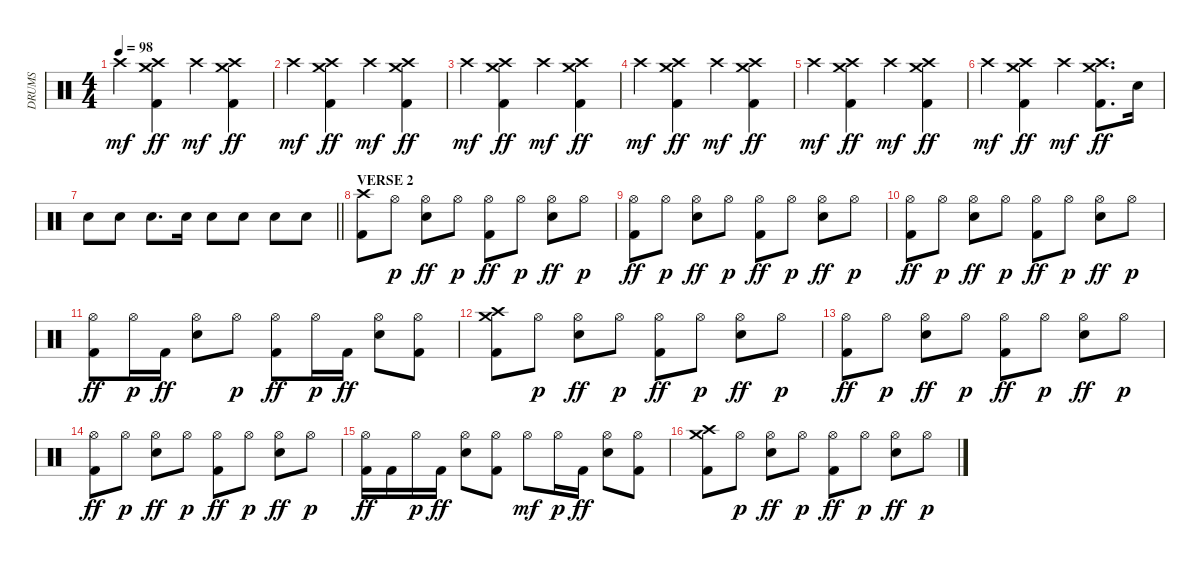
\track ("DRUMS" "DRUMS") {instrument percussion}
\staff {score}
\articulation defaults
\ts (4 4)
\tempo 98
\clef neutral
\ks c "Crash high (hit)".4{dy mf}
("Crash high (hit)" "Crash medium (hit)" "Kick (hit) 2").4{dy ff} "Crash high (hit)".4{dy mf} ("Crash high (hit)" "Crash medium (hit)" "Kick (hit) 2").4{dy ff} |
"Crash high (hit)".4{dy mf} ("Crash high (hit)" "Crash medium (hit)" "Kick (hit) 2").4{dy ff} "Crash high (hit)".4{dy mf} ("Crash high (hit)" "Crash medium (hit)" "Kick (hit) 2").4{dy ff} |
"Crash high (hit)".4{dy mf} ("Crash high (hit)" "Crash medium (hit)" "Kick (hit) 2").4{dy ff} "Crash high (hit)".4{dy mf} ("Crash high (hit)" "Crash medium (hit)" "Kick (hit) 2").4{dy ff} |
"Crash high (hit)".4{dy mf} ("Crash high (hit)" "Crash medium (hit)" "Kick (hit) 2").4{dy ff} "Crash high (hit)".4{dy mf} ("Crash high (hit)" "Crash medium (hit)" "Kick (hit) 2").4{dy ff} |
"Crash high (hit)".4{dy mf} ("Crash high (hit)" "Crash medium (hit)" "Kick (hit) 2").4{dy ff} "Crash high (hit)".4{dy mf} ("Crash high (hit)" "Crash medium (hit)" "Kick (hit) 2").4{dy ff} |
"Crash high (hit)".4{dy mf} ("Crash high (hit)" "Crash medium (hit)" "Kick (hit) 2").4{dy ff} "Crash high (hit)".4{dy mf} ("Crash high (hit)" "Crash medium (hit)" "Kick (hit) 2").8{d dy ff} "Snare (hit) 2".16 |
\barLineRight lightlight "Snare (hit) 2".8 "Snare (hit) 2".8 "Snare (hit) 2".8{d} "Snare (hit) 2".16 "Snare (hit) 2".8 "Snare (hit) 2".8 "Snare (hit) 2".8 "Snare (hit) 2".8
|
\section ("" "VERSE 2")
("Crash high (hit)" "Kick (hit) 2").8 "Hi-Hat (open)".8{dy p} ("Hi-Hat (open)" "Snare (hit) 2").8{dy ff} "Hi-Hat (open)".8{dy p} ("Hi-Hat (open)" "Kick (hit) 2").8{dy ff} "Hi-Hat (open)".8{dy p} ("Hi-Hat (open)" "Snare (hit) 2").8{dy ff} "Hi-Hat (open)".8{dy p} |
("Hi-Hat (open)" "Kick (hit) 2").8{dy ff} "Hi-Hat (open)".8{dy p} ("Hi-Hat (open)" "Snare (hit) 2").8{dy ff} "Hi-Hat (open)".8{dy p} ("Hi-Hat (open)" "Kick (hit) 2").8{dy ff} "Hi-Hat (open)".8{dy p} ("Hi-Hat (open)" "Snare (hit) 2").8{dy ff} "Hi-Hat (open)".8{dy p} |
("Hi-Hat (open)" "Kick (hit) 2").8{dy ff} "Hi-Hat (open)".8{dy p} ("Hi-Hat (open)" "Snare (hit) 2").8{dy ff} "Hi-Hat (open)".8{dy p} ("Hi-Hat (open)" "Kick (hit) 2").8{dy ff} "Hi-Hat (open)".8{dy p} ("Hi-Hat (open)" "Snare (hit) 2").8{dy ff} "Hi-Hat (open)".8{dy p} |
("Hi-Hat (open)" "Kick (hit) 2").8{dy ff} "Hi-Hat (open)".16{dy p} "Kick (hit) 2".16{dy ff} ("Hi-Hat (open)" "Snare (hit) 2").8 "Hi-Hat (open)".8{dy p} ("Hi-Hat (open)" "Kick (hit) 2").8{dy ff} "Hi-Hat (open)".16{dy p} "Kick (hit) 2".16{dy ff} ("Hi-Hat (open)" "Snare (hit) 2").8 ("Hi-Hat (open)" "Kick (hit) 2").8 |
("Crash high (hit)" "Crash medium (hit)" "Kick (hit) 2").8 "Hi-Hat (open)".8{dy p} ("Hi-Hat (open)" "Snare (hit) 2").8{dy ff} "Hi-Hat (open)".8{dy p} ("Hi-Hat (open)" "Kick (hit) 2").8{dy ff} "Hi-Hat (open)".8{dy p} ("Hi-Hat (open)" "Snare (hit) 2").8{dy ff} "Hi-Hat (open)".8{dy p} |
("Hi-Hat (open)" "Kick (hit) 2").8{dy ff} "Hi-Hat (open)".8{dy p} ("Hi-Hat (open)" "Snare (hit) 2").8{dy ff} "Hi-Hat (open)".8{dy p} ("Hi-Hat (open)" "Kick (hit) 2").8{dy ff} "Hi-Hat (open)".8{dy p} ("Hi-Hat (open)" "Snare (hit) 2").8{dy ff} "Hi-Hat (open)".8{dy p} |
("Hi-Hat (open)" "Kick (hit) 2").8{dy ff} "Hi-Hat (open)".8{dy p} ("Hi-Hat (open)" "Snare (hit) 2").8{dy ff} "Hi-Hat (open)".8{dy p} ("Hi-Hat (open)" "Kick (hit) 2").8{dy ff} "Hi-Hat (open)".8{dy p} ("Hi-Hat (open)" "Snare (hit) 2").8{dy ff} "Hi-Hat (open)".8{dy p} |
("Hi-Hat (open)" "Kick (hit) 2").16{dy ff} "Kick (hit) 2".16 "Hi-Hat (open)".16{dy p} "Kick (hit) 2".16{dy ff} ("Hi-Hat (open)" "Snare (hit) 2").8 ("Hi-Hat (open)" "Kick (hit) 2").8 "Hi-Hat (open)".8{dy mf} "Hi-Hat (open)".16{dy p} "Kick (hit) 2".16{dy ff} ("Hi-Hat (open)" "Snare (hit) 2").8 ("Hi-Hat (open)" "Kick (hit) 2").8 |
("Crash high (hit)" "Crash medium (hit)" "Kick (hit) 2").8 "Hi-Hat (open)".8{dy p} ("Hi-Hat (open)" "Snare (hit) 2").8{dy ff} "Hi-Hat (open)".8{dy p} ("Hi-Hat (open)" "Kick (hit) 2").8{dy ff} "Hi-Hat (open)".8{dy p} ("Hi-Hat (open)" "Snare (hit) 2").8{dy ff} "Hi-Hat (open)".8{dy p}
